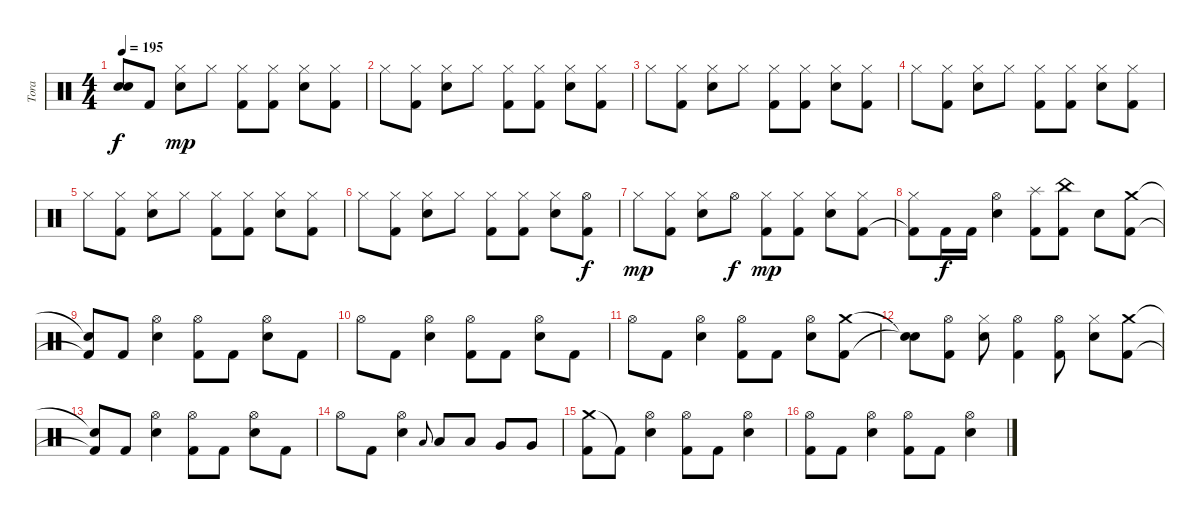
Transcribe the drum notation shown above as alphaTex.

\track ("Tora" "Tora") {instrument percussion}
\staff {score}
\articulation defaults
\ts (4 4)
\tempo 195
\clef neutral
\ks c
("Snare (hit)"{t} "Snare (hit)"{t}).8{dy f} "Kick (hit) 2".8 ("Hi-Hat (closed)" "Electric Snare (hit)").8{dy mp} "Hi-Hat (closed)".8 ("Hi-Hat (closed)" "Kick (hit) 2").8 ("Hi-Hat (closed)" "Kick (hit) 2").8 ("Hi-Hat (closed)" "Electric Snare (hit)").8 ("Hi-Hat (closed)" "Kick (hit) 2").8 |
"Hi-Hat (closed)".8 ("Hi-Hat (closed)" "Kick (hit) 2").8 ("Hi-Hat (closed)" "Electric Snare (hit)").8 "Hi-Hat (closed)".8 ("Hi-Hat (closed)" "Kick (hit) 2").8 ("Hi-Hat (closed)" "Kick (hit) 2").8 ("Hi-Hat (closed)" "Electric Snare (hit)").8 ("Hi-Hat (closed)" "Kick (hit) 2").8 |
"Hi-Hat (closed)".8 ("Hi-Hat (closed)" "Kick (hit) 2").8 ("Hi-Hat (closed)" "Electric Snare (hit)").8 "Hi-Hat (closed)".8 ("Hi-Hat (closed)" "Kick (hit) 2").8 ("Hi-Hat (closed)" "Kick (hit) 2").8 ("Hi-Hat (closed)" "Electric Snare (hit)").8 ("Hi-Hat (closed)" "Kick (hit) 2").8 |
"Hi-Hat (closed)".8 ("Hi-Hat (closed)" "Kick (hit) 2").8 ("Hi-Hat (closed)" "Electric Snare (hit)").8 "Hi-Hat (closed)".8 ("Hi-Hat (closed)" "Kick (hit) 2").8 ("Hi-Hat (closed)" "Kick (hit) 2").8 ("Hi-Hat (closed)" "Electric Snare (hit)").8 ("Hi-Hat (closed)" "Kick (hit) 2").8 |
"Hi-Hat (closed)".8 ("Hi-Hat (closed)" "Kick (hit) 2").8 ("Hi-Hat (closed)" "Electric Snare (hit)").8 "Hi-Hat (closed)".8 ("Hi-Hat (closed)" "Kick (hit) 2").8 ("Hi-Hat (closed)" "Kick (hit) 2").8 ("Hi-Hat (closed)" "Electric Snare (hit)").8 ("Hi-Hat (closed)" "Kick (hit) 2").8 |
"Hi-Hat (closed)".8 ("Hi-Hat (closed)" "Kick (hit) 2").8 ("Hi-Hat (closed)" "Electric Snare (hit)").8 "Hi-Hat (closed)".8 ("Hi-Hat (closed)" "Kick (hit) 2").8 ("Hi-Hat (closed)" "Kick (hit) 2").8 ("Hi-Hat (closed)" "Electric Snare (hit)").8 ("Hi-Hat (open)" "Kick (hit) 2").8{dy f} |
"Hi-Hat (closed)".8{dy mp} ("Hi-Hat (closed)" "Kick (hit) 2").8 ("Hi-Hat (closed)" "Electric Snare (hit)").8 "Hi-Hat (open)".8{dy f} ("Hi-Hat (closed)" "Kick (hit) 2").8{dy mp} ("Hi-Hat (closed)" "Kick (hit) 2").8 ("Hi-Hat (closed)" "Electric Snare (hit)").8 ("Hi-Hat (closed)" "Kick (hit) 2").8 |
("Hi-Hat (closed)" "Kick (hit) 2"{t}).8 "Kick (hit) 2".16{dy f} "Kick (hit) 2".16 ("Hi-Hat (open)" "Electric Snare (hit)").4 ("Splash (hit)" "Kick (hit) 2").8 ("China (hit)" "Kick (hit) 2").8 "Electric Snare (hit)".8 ("Crash medium (hit)" "Kick (hit) 2").8 |
("Snare (hit)"{t} "Kick (hit) 2"{t}).8 "Kick (hit) 2".8 ("Hi-Hat (open)" "Electric Snare (hit)").4 ("Hi-Hat (open)" "Kick (hit) 2").8 "Kick (hit) 2".8 ("Hi-Hat (open)" "Electric Snare (hit)").8 "Kick (hit) 2".8 |
"Hi-Hat (open)".8 "Kick (hit) 2".8 ("Hi-Hat (open)" "Electric Snare (hit)").4 ("Hi-Hat (open)" "Kick (hit) 2").8 "Kick (hit) 2".8 ("Hi-Hat (open)" "Electric Snare (hit)").8 "Kick (hit) 2".8 |
"Hi-Hat (open)".8 "Kick (hit) 2".8 ("Hi-Hat (open)" "Electric Snare (hit)").4 ("Hi-Hat (open)" "Kick (hit) 2").8 "Kick (hit) 2".8 ("Hi-Hat (open)" "Electric Snare (hit)").8 ("Crash medium (hit)" "Kick (hit) 2").8 |
("Snare (hit)"{t} "Snare (hit)"{t}).8 ("Hi-Hat (open)" "Kick (hit) 2").8 ("Hi-Hat (closed)" "Electric Snare (hit)").8 ("Hi-Hat (open)" "Kick (hit) 2").4 ("Hi-Hat (open)" "Kick (hit) 2").8 ("Hi-Hat (closed)" "Electric Snare (hit)").8 ("Crash medium (hit)" "Kick (hit) 2").8 |
("Snare (hit)"{t} "Kick (hit) 2"{t}).8 "Kick (hit) 2".8 ("Hi-Hat (open)" "Electric Snare (hit)").4 ("Hi-Hat (open)" "Kick (hit) 2").8 "Kick (hit) 2".8 ("Hi-Hat (open)" "Electric Snare (hit)").8 "Kick (hit) 2".8 |
"Hi-Hat (open)".8 "Kick (hit) 2".8 ("Hi-Hat (open)" "Electric Snare (hit)").4 "Low Tom (hit)".8{gr onbeat} "Low Tom (hit)".8 "Low Tom (hit)".8 "Very Low Tom (hit)".8 "Very Low Tom (hit)".8 |
("Crash medium (hit)" "Kick (hit) 2").8 "Kick (hit) 2"{t}.8 ("Hi-Hat (open)" "Electric Snare (hit)").4 ("Hi-Hat (open)" "Kick (hit) 2").8 "Kick (hit) 2".8 ("Hi-Hat (open)" "Electric Snare (hit)").4 |
("Hi-Hat (open)" "Kick (hit) 2").8 "Kick (hit) 2".8 ("Hi-Hat (open)" "Electric Snare (hit)").4 ("Hi-Hat (open)" "Kick (hit) 2").8 "Kick (hit) 2".8 ("Hi-Hat (open)" "Electric Snare (hit)").4
